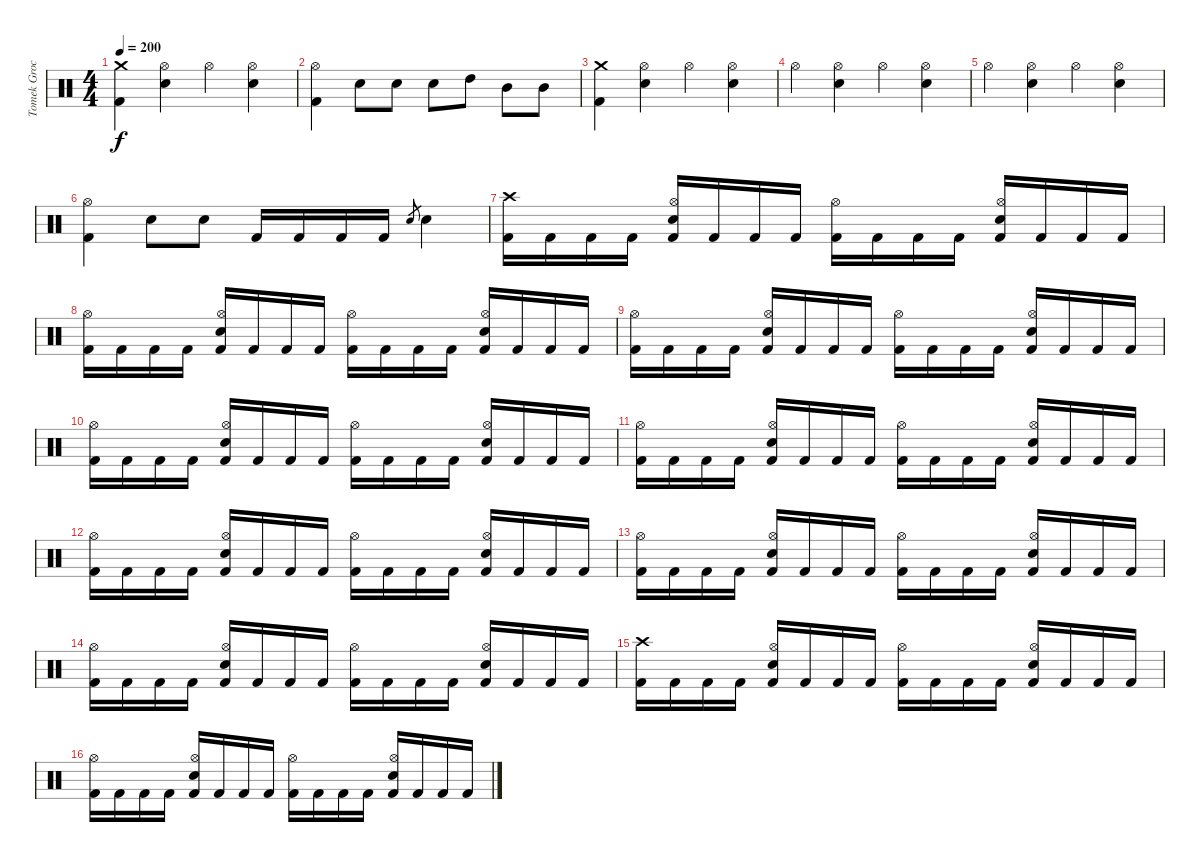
\track ("Tomek Grochowski" "Tomek Groc") {instrument percussion}
\staff {score}
\articulation defaults
\ts (4 4)
\tempo 200
\clef neutral
\ks c
("Crash medium (hit)" "Kick (hit) 2").4{dy f} ("Hi-Hat (open)" "Electric Snare (hit)").4 "Hi-Hat (open)".4 ("Hi-Hat (open)" "Electric Snare (hit)").4 |
("Hi-Hat (open)" "Kick (hit) 2").4 "Electric Snare (hit)".8 "Electric Snare (hit)".8 "Electric Snare (hit)".8 "High Tom (hit)".8 "Mid Tom (hit)".8 "Mid Tom (hit)".8 |
("Crash medium (hit)" "Kick (hit) 2").4 ("Hi-Hat (open)" "Electric Snare (hit)").4 "Hi-Hat (open)".4 ("Hi-Hat (open)" "Electric Snare (hit)").4 |
"Hi-Hat (open)".4 ("Hi-Hat (open)" "Electric Snare (hit)").4 "Hi-Hat (open)".4 ("Hi-Hat (open)" "Electric Snare (hit)").4 |
"Hi-Hat (open)".4 ("Hi-Hat (open)" "Electric Snare (hit)").4 "Hi-Hat (open)".4 ("Hi-Hat (open)" "Electric Snare (hit)").4 |
("Hi-Hat (open)" "Kick (hit) 2").4 "Electric Snare (hit)".8 "Electric Snare (hit)".8 "Kick (hit) 2".16 "Kick (hit) 2".16 "Kick (hit) 2".16 "Kick (hit) 2".16 "Electric Snare (hit)".8{gr} "Electric Snare (hit)".4 |
("Crash high (hit)" "Kick (hit) 2").16 "Kick (hit) 2".16 "Kick (hit) 2".16 "Kick (hit) 2".16 ("Hi-Hat (open)" "Electric Snare (hit)" "Kick (hit) 2").16 "Kick (hit) 2".16 "Kick (hit) 2".16 "Kick (hit) 2".16 ("Hi-Hat (open)" "Kick (hit) 2").16 "Kick (hit) 2".16 "Kick (hit) 2".16 "Kick (hit) 2".16 ("Hi-Hat (open)" "Electric Snare (hit)" "Kick (hit) 2").16 "Kick (hit) 2".16 "Kick (hit) 2".16 "Kick (hit) 2".16 |
("Hi-Hat (open)" "Kick (hit) 2").16 "Kick (hit) 2".16 "Kick (hit) 2".16 "Kick (hit) 2".16 ("Hi-Hat (open)" "Electric Snare (hit)" "Kick (hit) 2").16 "Kick (hit) 2".16 "Kick (hit) 2".16 "Kick (hit) 2".16 ("Hi-Hat (open)" "Kick (hit) 2").16 "Kick (hit) 2".16 "Kick (hit) 2".16 "Kick (hit) 2".16 ("Hi-Hat (open)" "Electric Snare (hit)" "Kick (hit) 2").16 "Kick (hit) 2".16 "Kick (hit) 2".16 "Kick (hit) 2".16 |
("Hi-Hat (open)" "Kick (hit) 2").16 "Kick (hit) 2".16 "Kick (hit) 2".16 "Kick (hit) 2".16 ("Hi-Hat (open)" "Electric Snare (hit)" "Kick (hit) 2").16 "Kick (hit) 2".16 "Kick (hit) 2".16 "Kick (hit) 2".16 ("Hi-Hat (open)" "Kick (hit) 2").16 "Kick (hit) 2".16 "Kick (hit) 2".16 "Kick (hit) 2".16 ("Hi-Hat (open)" "Electric Snare (hit)" "Kick (hit) 2").16 "Kick (hit) 2".16 "Kick (hit) 2".16 "Kick (hit) 2".16 |
("Hi-Hat (open)" "Kick (hit) 2").16 "Kick (hit) 2".16 "Kick (hit) 2".16 "Kick (hit) 2".16 ("Hi-Hat (open)" "Electric Snare (hit)" "Kick (hit) 2").16 "Kick (hit) 2".16 "Kick (hit) 2".16 "Kick (hit) 2".16 ("Hi-Hat (open)" "Kick (hit) 2").16 "Kick (hit) 2".16 "Kick (hit) 2".16 "Kick (hit) 2".16 ("Hi-Hat (open)" "Electric Snare (hit)" "Kick (hit) 2").16 "Kick (hit) 2".16 "Kick (hit) 2".16 "Kick (hit) 2".16 |
("Hi-Hat (open)" "Kick (hit) 2").16 "Kick (hit) 2".16 "Kick (hit) 2".16 "Kick (hit) 2".16 ("Hi-Hat (open)" "Electric Snare (hit)" "Kick (hit) 2").16 "Kick (hit) 2".16 "Kick (hit) 2".16 "Kick (hit) 2".16 ("Hi-Hat (open)" "Kick (hit) 2").16 "Kick (hit) 2".16 "Kick (hit) 2".16 "Kick (hit) 2".16 ("Hi-Hat (open)" "Electric Snare (hit)" "Kick (hit) 2").16 "Kick (hit) 2".16 "Kick (hit) 2".16 "Kick (hit) 2".16 |
("Hi-Hat (open)" "Kick (hit) 2").16 "Kick (hit) 2".16 "Kick (hit) 2".16 "Kick (hit) 2".16 ("Hi-Hat (open)" "Electric Snare (hit)" "Kick (hit) 2").16 "Kick (hit) 2".16 "Kick (hit) 2".16 "Kick (hit) 2".16 ("Hi-Hat (open)" "Kick (hit) 2").16 "Kick (hit) 2".16 "Kick (hit) 2".16 "Kick (hit) 2".16 ("Hi-Hat (open)" "Electric Snare (hit)" "Kick (hit) 2").16 "Kick (hit) 2".16 "Kick (hit) 2".16 "Kick (hit) 2".16 |
("Hi-Hat (open)" "Kick (hit) 2").16 "Kick (hit) 2".16 "Kick (hit) 2".16 "Kick (hit) 2".16 ("Hi-Hat (open)" "Electric Snare (hit)" "Kick (hit) 2").16 "Kick (hit) 2".16 "Kick (hit) 2".16 "Kick (hit) 2".16 ("Hi-Hat (open)" "Kick (hit) 2").16 "Kick (hit) 2".16 "Kick (hit) 2".16 "Kick (hit) 2".16 ("Hi-Hat (open)" "Electric Snare (hit)" "Kick (hit) 2").16 "Kick (hit) 2".16 "Kick (hit) 2".16 "Kick (hit) 2".16 |
("Hi-Hat (open)" "Kick (hit) 2").16 "Kick (hit) 2".16 "Kick (hit) 2".16 "Kick (hit) 2".16 ("Hi-Hat (open)" "Electric Snare (hit)" "Kick (hit) 2").16 "Kick (hit) 2".16 "Kick (hit) 2".16 "Kick (hit) 2".16 ("Hi-Hat (open)" "Kick (hit) 2").16 "Kick (hit) 2".16 "Kick (hit) 2".16 "Kick (hit) 2".16 ("Hi-Hat (open)" "Electric Snare (hit)" "Kick (hit) 2").16 "Kick (hit) 2".16 "Kick (hit) 2".16 "Kick (hit) 2".16 |
("Crash high (hit)" "Kick (hit) 2").16 "Kick (hit) 2".16 "Kick (hit) 2".16 "Kick (hit) 2".16 ("Hi-Hat (open)" "Electric Snare (hit)" "Kick (hit) 2").16 "Kick (hit) 2".16 "Kick (hit) 2".16 "Kick (hit) 2".16 ("Hi-Hat (open)" "Kick (hit) 2").16 "Kick (hit) 2".16 "Kick (hit) 2".16 "Kick (hit) 2".16 ("Hi-Hat (open)" "Electric Snare (hit)" "Kick (hit) 2").16 "Kick (hit) 2".16 "Kick (hit) 2".16 "Kick (hit) 2".16 |
("Hi-Hat (open)" "Kick (hit) 2").16 "Kick (hit) 2".16 "Kick (hit) 2".16 "Kick (hit) 2".16 ("Hi-Hat (open)" "Electric Snare (hit)" "Kick (hit) 2").16 "Kick (hit) 2".16 "Kick (hit) 2".16 "Kick (hit) 2".16 ("Hi-Hat (open)" "Kick (hit) 2").16 "Kick (hit) 2".16 "Kick (hit) 2".16 "Kick (hit) 2".16 ("Hi-Hat (open)" "Electric Snare (hit)" "Kick (hit) 2").16 "Kick (hit) 2".16 "Kick (hit) 2".16 "Kick (hit) 2".16
